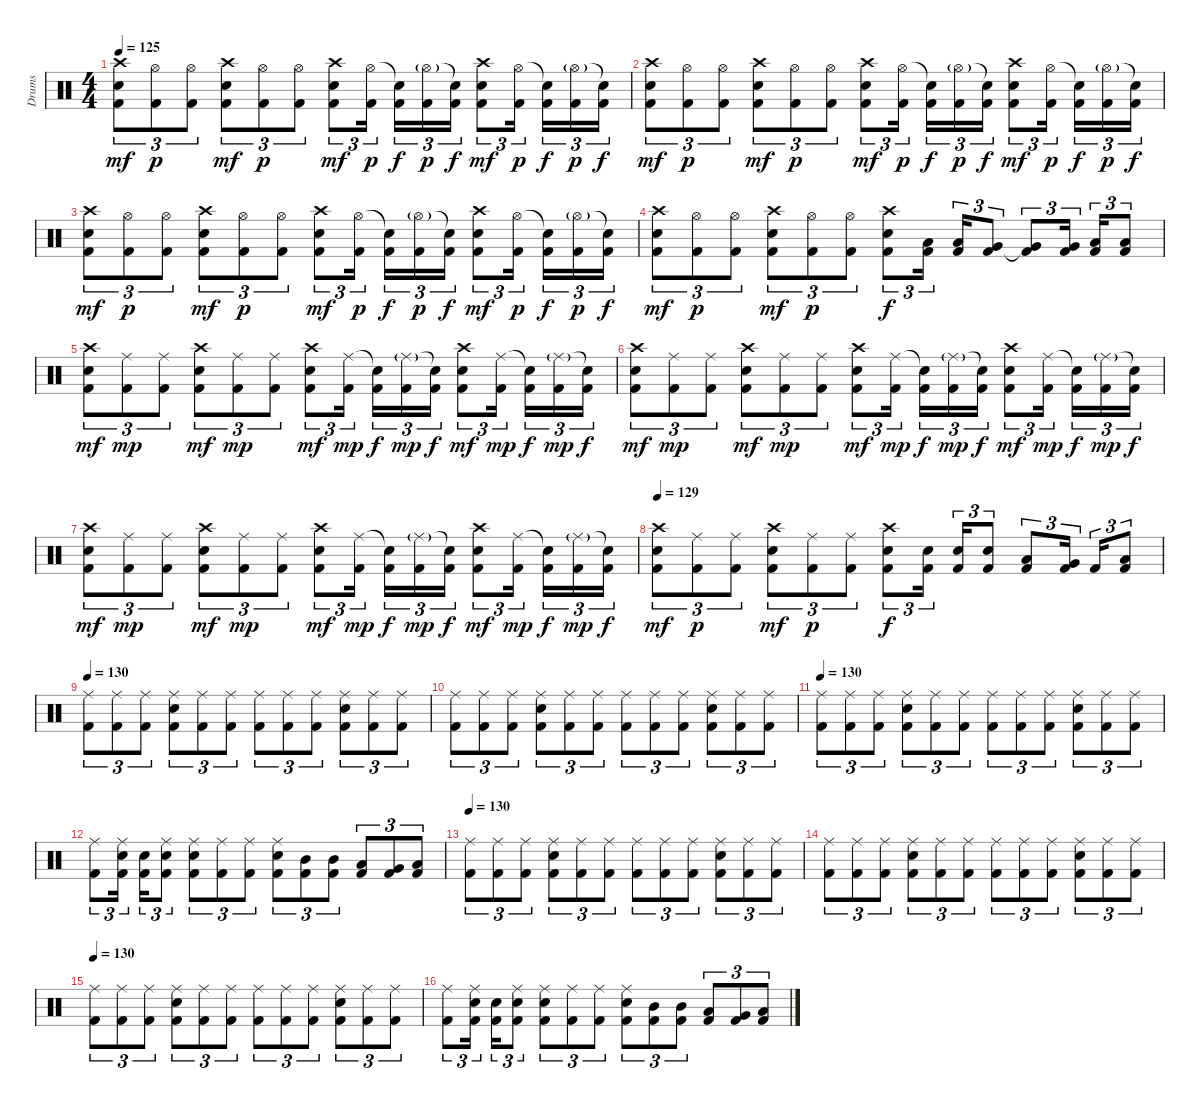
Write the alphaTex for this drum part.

\track ("Drums" "Drums") {instrument percussion}
\staff {score}
\articulation defaults
\ts (4 4)
\tempo 125
\clef neutral
\ks c
("Crash high (hit)" "Snare (hit) 2" "Kick (hit) 2").8{tu (3 2) dy mf} ("Hi-Hat (open)" "Kick (hit) 2").8{tu (3 2) dy p} ("Hi-Hat (open)" "Kick (hit) 2").8{tu (3 2)} ("Crash high (hit)" "Snare (hit) 2" "Kick (hit) 2").8{tu (3 2) dy mf} ("Hi-Hat (open)" "Kick (hit) 2").8{tu (3 2) dy p} ("Hi-Hat (open)" "Kick (hit) 2").8{tu (3 2)} ("Crash high (hit)" "Snare (hit) 2" "Kick (hit) 2").8{tu (3 2) dy mf} ("Hi-Hat (open)" "Kick (hit) 2").16{tu (3 2) dy p} ("Snare (hit)"{t} "Kick (hit) 2").16{tu (3 2) dy f} ("Hi-Hat (open)"{g} "Kick (hit) 2").16{tu (3 2) dy p} ("Snare (hit)"{t} "Kick (hit) 2").16{tu (3 2) dy f} ("Crash high (hit)" "Snare (hit) 2" "Kick (hit) 2").8{tu (3 2) dy mf} ("Hi-Hat (open)" "Kick (hit) 2").16{tu (3 2) dy p} ("Snare (hit)"{t} "Kick (hit) 2").16{tu (3 2) dy f} ("Hi-Hat (open)"{g} "Kick (hit) 2").16{tu (3 2) dy p} ("Snare (hit)"{t} "Kick (hit) 2").16{tu (3 2) dy f} |
("Crash high (hit)" "Snare (hit) 2" "Kick (hit) 2").8{tu (3 2) dy mf} ("Hi-Hat (open)" "Kick (hit) 2").8{tu (3 2) dy p} ("Hi-Hat (open)" "Kick (hit) 2").8{tu (3 2)} ("Crash high (hit)" "Snare (hit) 2" "Kick (hit) 2").8{tu (3 2) dy mf} ("Hi-Hat (open)" "Kick (hit) 2").8{tu (3 2) dy p} ("Hi-Hat (open)" "Kick (hit) 2").8{tu (3 2)} ("Crash high (hit)" "Snare (hit) 2" "Kick (hit) 2").8{tu (3 2) dy mf} ("Hi-Hat (open)" "Kick (hit) 2").16{tu (3 2) dy p} ("Snare (hit)"{t} "Kick (hit) 2").16{tu (3 2) dy f} ("Hi-Hat (open)"{g} "Kick (hit) 2").16{tu (3 2) dy p} ("Snare (hit)"{t} "Kick (hit) 2").16{tu (3 2) dy f} ("Crash high (hit)" "Snare (hit) 2" "Kick (hit) 2").8{tu (3 2) dy mf} ("Hi-Hat (open)" "Kick (hit) 2").16{tu (3 2) dy p} ("Snare (hit)"{t} "Kick (hit) 2").16{tu (3 2) dy f} ("Hi-Hat (open)"{g} "Kick (hit) 2").16{tu (3 2) dy p} ("Snare (hit)"{t} "Kick (hit) 2").16{tu (3 2) dy f} |
("Crash high (hit)" "Snare (hit) 2" "Kick (hit) 2").8{tu (3 2) dy mf} ("Hi-Hat (open)" "Kick (hit) 2").8{tu (3 2) dy p} ("Hi-Hat (open)" "Kick (hit) 2").8{tu (3 2)} ("Crash high (hit)" "Snare (hit) 2" "Kick (hit) 2").8{tu (3 2) dy mf} ("Hi-Hat (open)" "Kick (hit) 2").8{tu (3 2) dy p} ("Hi-Hat (open)" "Kick (hit) 2").8{tu (3 2)} ("Crash high (hit)" "Snare (hit) 2" "Kick (hit) 2").8{tu (3 2) dy mf} ("Hi-Hat (open)" "Kick (hit) 2").16{tu (3 2) dy p} ("Snare (hit)"{t} "Kick (hit) 2").16{tu (3 2) dy f} ("Hi-Hat (open)"{g} "Kick (hit) 2").16{tu (3 2) dy p} ("Snare (hit)"{t} "Kick (hit) 2").16{tu (3 2) dy f} ("Crash high (hit)" "Snare (hit) 2" "Kick (hit) 2").8{tu (3 2) dy mf} ("Hi-Hat (open)" "Kick (hit) 2").16{tu (3 2) dy p} ("Snare (hit)"{t} "Kick (hit) 2").16{tu (3 2) dy f} ("Hi-Hat (open)"{g} "Kick (hit) 2").16{tu (3 2) dy p} ("Snare (hit)"{t} "Kick (hit) 2").16{tu (3 2) dy f} |
("Crash high (hit)" "Snare (hit) 2" "Kick (hit) 2").8{tu (3 2) dy mf} ("Hi-Hat (open)" "Kick (hit) 2").8{tu (3 2) dy p} ("Hi-Hat (open)" "Kick (hit) 2").8{tu (3 2)} ("Crash high (hit)" "Snare (hit) 2" "Kick (hit) 2").8{tu (3 2) dy mf} ("Hi-Hat (open)" "Kick (hit) 2").8{tu (3 2) dy p} ("Hi-Hat (open)" "Kick (hit) 2").8{tu (3 2)} ("Crash high (hit)" "Snare (hit) 2" "Kick (hit) 2").8{tu (3 2) dy f} ("Low Tom (hit)" "Kick (hit) 2").16{tu (3 2)} ("Low Tom (hit)" "Kick (hit) 2").16{tu (3 2)} ("Very Low Tom (hit)" "Kick (hit) 2").8{tu (3 2)} ("Very Low Tom (hit)"{t} "Kick (hit) 2").8{tu (3 2)} ("Very Low Tom (hit)" "Kick (hit) 2").16{tu (3 2)} ("Low Floor Tom (hit)" "Kick (hit) 2").16{tu (3 2)} ("Low Floor Tom (hit)" "Kick (hit) 2").8{tu (3 2)} |
("Crash high (hit)" "Snare (hit) 2" "Kick (hit) 2").8{tu (3 2) dy mf} ("Ride (middle)" "Kick (hit) 2").8{tu (3 2) dy mp} ("Ride (middle)" "Kick (hit) 2").8{tu (3 2)} ("Crash high (hit)" "Snare (hit) 2" "Kick (hit) 2").8{tu (3 2) dy mf} ("Ride (middle)" "Kick (hit) 2").8{tu (3 2) dy mp} ("Ride (middle)" "Kick (hit) 2").8{tu (3 2)} ("Crash high (hit)" "Snare (hit) 2" "Kick (hit) 2").8{tu (3 2) dy mf} ("Ride (middle)" "Kick (hit) 2").16{tu (3 2) dy mp} ("Snare (hit)"{t} "Kick (hit) 2").16{tu (3 2) dy f} ("Ride (middle)"{g} "Kick (hit) 2").16{tu (3 2) dy mp} ("Snare (hit)"{t} "Kick (hit) 2").16{tu (3 2) dy f} ("Crash high (hit)" "Snare (hit) 2" "Kick (hit) 2").8{tu (3 2) dy mf} ("Ride (middle)" "Kick (hit) 2").16{tu (3 2) dy mp} ("Snare (hit)"{t} "Kick (hit) 2").16{tu (3 2) dy f} ("Ride (middle)"{g} "Kick (hit) 2").16{tu (3 2) dy mp} ("Snare (hit)"{t} "Kick (hit) 2").16{tu (3 2) dy f} |
("Crash high (hit)" "Snare (hit) 2" "Kick (hit) 2").8{tu (3 2) dy mf} ("Ride (middle)" "Kick (hit) 2").8{tu (3 2) dy mp} ("Ride (middle)" "Kick (hit) 2").8{tu (3 2)} ("Crash high (hit)" "Snare (hit) 2" "Kick (hit) 2").8{tu (3 2) dy mf} ("Ride (middle)" "Kick (hit) 2").8{tu (3 2) dy mp} ("Ride (middle)" "Kick (hit) 2").8{tu (3 2)} ("Crash high (hit)" "Snare (hit) 2" "Kick (hit) 2").8{tu (3 2) dy mf} ("Ride (middle)" "Kick (hit) 2").16{tu (3 2) dy mp} ("Snare (hit)"{t} "Kick (hit) 2").16{tu (3 2) dy f} ("Ride (middle)"{g} "Kick (hit) 2").16{tu (3 2) dy mp} ("Snare (hit)"{t} "Kick (hit) 2").16{tu (3 2) dy f} ("Crash high (hit)" "Snare (hit) 2" "Kick (hit) 2").8{tu (3 2) dy mf} ("Ride (middle)" "Kick (hit) 2").16{tu (3 2) dy mp} ("Snare (hit)"{t} "Kick (hit) 2").16{tu (3 2) dy f} ("Ride (middle)"{g} "Kick (hit) 2").16{tu (3 2) dy mp} ("Snare (hit)"{t} "Kick (hit) 2").16{tu (3 2) dy f} |
("Crash high (hit)" "Snare (hit) 2" "Kick (hit) 2").8{tu (3 2) dy mf} ("Ride (middle)" "Kick (hit) 2").8{tu (3 2) dy mp} ("Ride (middle)" "Kick (hit) 2").8{tu (3 2)} ("Crash high (hit)" "Snare (hit) 2" "Kick (hit) 2").8{tu (3 2) dy mf} ("Ride (middle)" "Kick (hit) 2").8{tu (3 2) dy mp} ("Ride (middle)" "Kick (hit) 2").8{tu (3 2)} ("Crash high (hit)" "Snare (hit) 2" "Kick (hit) 2").8{tu (3 2) dy mf} ("Ride (middle)" "Kick (hit) 2").16{tu (3 2) dy mp} ("Snare (hit)"{t} "Kick (hit) 2").16{tu (3 2) dy f} ("Ride (middle)"{g} "Kick (hit) 2").16{tu (3 2) dy mp} ("Snare (hit)"{t} "Kick (hit) 2").16{tu (3 2) dy f} ("Crash high (hit)" "Snare (hit) 2" "Kick (hit) 2").8{tu (3 2) dy mf} ("Ride (middle)" "Kick (hit) 2").16{tu (3 2) dy mp} ("Snare (hit)"{t} "Kick (hit) 2").16{tu (3 2) dy f} ("Ride (middle)"{g} "Kick (hit) 2").16{tu (3 2) dy mp} ("Snare (hit)"{t} "Kick (hit) 2").16{tu (3 2) dy f} |
\tempo 129
("Crash high (hit)" "Snare (hit) 2" "Kick (hit) 2").8{tu (3 2) dy mf} ("Ride (middle)" "Kick (hit) 2").8{tu (3 2) dy p} ("Ride (middle)" "Kick (hit) 2").8{tu (3 2)} ("Crash high (hit)" "Snare (hit) 2" "Kick (hit) 2").8{tu (3 2) dy mf} ("Ride (middle)" "Kick (hit) 2").8{tu (3 2) dy p} ("Ride (middle)" "Kick (hit) 2").8{tu (3 2)} ("Crash high (hit)" "Snare (hit) 2" "Kick (hit) 2").8{tu (3 2) dy f} ("Snare (hit) 2" "Kick (hit) 2").16{tu (3 2)} ("Snare (hit) 2" "Kick (hit) 2").16{tu (3 2)} ("Snare (hit) 2" "Kick (hit) 2").8{tu (3 2)} ("Low Tom (hit)" "Kick (hit) 2").8{tu (3 2)} ("Very Low Tom (hit)" "Kick (hit) 2").16{tu (3 2)} "Kick (hit) 2".16{tu (3 2)} ("Low Floor Tom (hit)" "Kick (hit) 2").8{tu (3 2)} |
\tempo 130
("Ride (middle)" "Kick (hit) 2").8{tu (3 2)} ("Ride (middle)" "Kick (hit) 2").8{tu (3 2)} ("Ride (middle)" "Kick (hit) 2").8{tu (3 2)} ("Ride (middle)" "Snare (hit) 2" "Kick (hit) 2").8{tu (3 2)} ("Ride (middle)" "Kick (hit) 2").8{tu (3 2)} ("Ride (middle)" "Kick (hit) 2").8{tu (3 2)} ("Ride (middle)" "Kick (hit) 2").8{tu (3 2)} ("Ride (middle)" "Kick (hit) 2").8{tu (3 2)} ("Ride (middle)" "Kick (hit) 2").8{tu (3 2)} ("Ride (middle)" "Snare (hit) 2" "Kick (hit) 2").8{tu (3 2)} ("Ride (middle)" "Kick (hit) 2").8{tu (3 2)} ("Ride (middle)" "Kick (hit) 2").8{tu (3 2)} |
("Ride (middle)" "Kick (hit) 2").8{tu (3 2)} ("Ride (middle)" "Kick (hit) 2").8{tu (3 2)} ("Ride (middle)" "Kick (hit) 2").8{tu (3 2)} ("Ride (middle)" "Snare (hit) 2" "Kick (hit) 2").8{tu (3 2)} ("Ride (middle)" "Kick (hit) 2").8{tu (3 2)} ("Ride (middle)" "Kick (hit) 2").8{tu (3 2)} ("Ride (middle)" "Kick (hit) 2").8{tu (3 2)} ("Ride (middle)" "Kick (hit) 2").8{tu (3 2)} ("Ride (middle)" "Kick (hit) 2").8{tu (3 2)} ("Ride (middle)" "Snare (hit) 2" "Kick (hit) 2").8{tu (3 2)} ("Ride (middle)" "Kick (hit) 2").8{tu (3 2)} ("Ride (middle)" "Kick (hit) 2").8{tu (3 2)} |
\tempo 130
("Ride (middle)" "Kick (hit) 2").8{tu (3 2)} ("Ride (middle)" "Kick (hit) 2").8{tu (3 2)} ("Ride (middle)" "Kick (hit) 2").8{tu (3 2)} ("Ride (middle)" "Snare (hit) 2" "Kick (hit) 2").8{tu (3 2)} ("Ride (middle)" "Kick (hit) 2").8{tu (3 2)} ("Ride (middle)" "Kick (hit) 2").8{tu (3 2)} ("Ride (middle)" "Kick (hit) 2").8{tu (3 2)} ("Ride (middle)" "Kick (hit) 2").8{tu (3 2)} ("Ride (middle)" "Kick (hit) 2").8{tu (3 2)} ("Ride (middle)" "Snare (hit) 2" "Kick (hit) 2").8{tu (3 2)} ("Ride (middle)" "Kick (hit) 2").8{tu (3 2)} ("Ride (middle)" "Kick (hit) 2").8{tu (3 2)} |
("Ride (middle)" "Kick (hit) 2").8{tu (3 2)} ("Ride (middle)" "Snare (hit) 2" "Kick (hit) 2").16{tu (3 2)} ("Snare (hit) 2" "Kick (hit) 2").16{tu (3 2)} ("Ride (middle)" "Snare (hit) 2" "Kick (hit) 2").8{tu (3 2)} ("Ride (middle)" "Snare (hit) 2" "Kick (hit) 2").8{tu (3 2)} ("Ride (middle)" "Kick (hit) 2").8{tu (3 2)} ("Ride (middle)" "Kick (hit) 2").8{tu (3 2)} ("Ride (middle)" "Snare (hit) 2" "Kick (hit) 2").8{tu (3 2)} ("Mid Tom (hit)" "Kick (hit) 2").8{tu (3 2)} ("Mid Tom (hit)" "Kick (hit) 2").8{tu (3 2)} ("Low Tom (hit)" "Kick (hit) 2").8{tu (3 2)} ("Very Low Tom (hit)" "Kick (hit) 2").8{tu (3 2)} ("Low Floor Tom (hit)" "Kick (hit) 2").8{tu (3 2)} |
\tempo 130
("Ride (middle)" "Kick (hit) 2").8{tu (3 2)} ("Ride (middle)" "Kick (hit) 2").8{tu (3 2)} ("Ride (middle)" "Kick (hit) 2").8{tu (3 2)} ("Ride (middle)" "Snare (hit) 2" "Kick (hit) 2").8{tu (3 2)} ("Ride (middle)" "Kick (hit) 2").8{tu (3 2)} ("Ride (middle)" "Kick (hit) 2").8{tu (3 2)} ("Ride (middle)" "Kick (hit) 2").8{tu (3 2)} ("Ride (middle)" "Kick (hit) 2").8{tu (3 2)} ("Ride (middle)" "Kick (hit) 2").8{tu (3 2)} ("Ride (middle)" "Snare (hit) 2" "Kick (hit) 2").8{tu (3 2)} ("Ride (middle)" "Kick (hit) 2").8{tu (3 2)} ("Ride (middle)" "Kick (hit) 2").8{tu (3 2)} |
("Ride (middle)" "Kick (hit) 2").8{tu (3 2)} ("Ride (middle)" "Kick (hit) 2").8{tu (3 2)} ("Ride (middle)" "Kick (hit) 2").8{tu (3 2)} ("Ride (middle)" "Snare (hit) 2" "Kick (hit) 2").8{tu (3 2)} ("Ride (middle)" "Kick (hit) 2").8{tu (3 2)} ("Ride (middle)" "Kick (hit) 2").8{tu (3 2)} ("Ride (middle)" "Kick (hit) 2").8{tu (3 2)} ("Ride (middle)" "Kick (hit) 2").8{tu (3 2)} ("Ride (middle)" "Kick (hit) 2").8{tu (3 2)} ("Ride (middle)" "Snare (hit) 2" "Kick (hit) 2").8{tu (3 2)} ("Ride (middle)" "Kick (hit) 2").8{tu (3 2)} ("Ride (middle)" "Kick (hit) 2").8{tu (3 2)} |
\tempo 130
("Ride (middle)" "Kick (hit) 2").8{tu (3 2)} ("Ride (middle)" "Kick (hit) 2").8{tu (3 2)} ("Ride (middle)" "Kick (hit) 2").8{tu (3 2)} ("Ride (middle)" "Snare (hit) 2" "Kick (hit) 2").8{tu (3 2)} ("Ride (middle)" "Kick (hit) 2").8{tu (3 2)} ("Ride (middle)" "Kick (hit) 2").8{tu (3 2)} ("Ride (middle)" "Kick (hit) 2").8{tu (3 2)} ("Ride (middle)" "Kick (hit) 2").8{tu (3 2)} ("Ride (middle)" "Kick (hit) 2").8{tu (3 2)} ("Ride (middle)" "Snare (hit) 2" "Kick (hit) 2").8{tu (3 2)} ("Ride (middle)" "Kick (hit) 2").8{tu (3 2)} ("Ride (middle)" "Kick (hit) 2").8{tu (3 2)} |
("Ride (middle)" "Kick (hit) 2").8{tu (3 2)} ("Ride (middle)" "Snare (hit) 2" "Kick (hit) 2").16{tu (3 2)} ("Snare (hit) 2" "Kick (hit) 2").16{tu (3 2)} ("Ride (middle)" "Snare (hit) 2" "Kick (hit) 2").8{tu (3 2)} ("Ride (middle)" "Snare (hit) 2" "Kick (hit) 2").8{tu (3 2)} ("Ride (middle)" "Kick (hit) 2").8{tu (3 2)} ("Ride (middle)" "Kick (hit) 2").8{tu (3 2)} ("Ride (middle)" "Snare (hit) 2" "Kick (hit) 2").8{tu (3 2)} ("Mid Tom (hit)" "Kick (hit) 2").8{tu (3 2)} ("Mid Tom (hit)" "Kick (hit) 2").8{tu (3 2)} ("Low Tom (hit)" "Kick (hit) 2").8{tu (3 2)} ("Very Low Tom (hit)" "Kick (hit) 2").8{tu (3 2)} ("Low Floor Tom (hit)" "Kick (hit) 2").8{tu (3 2)}
